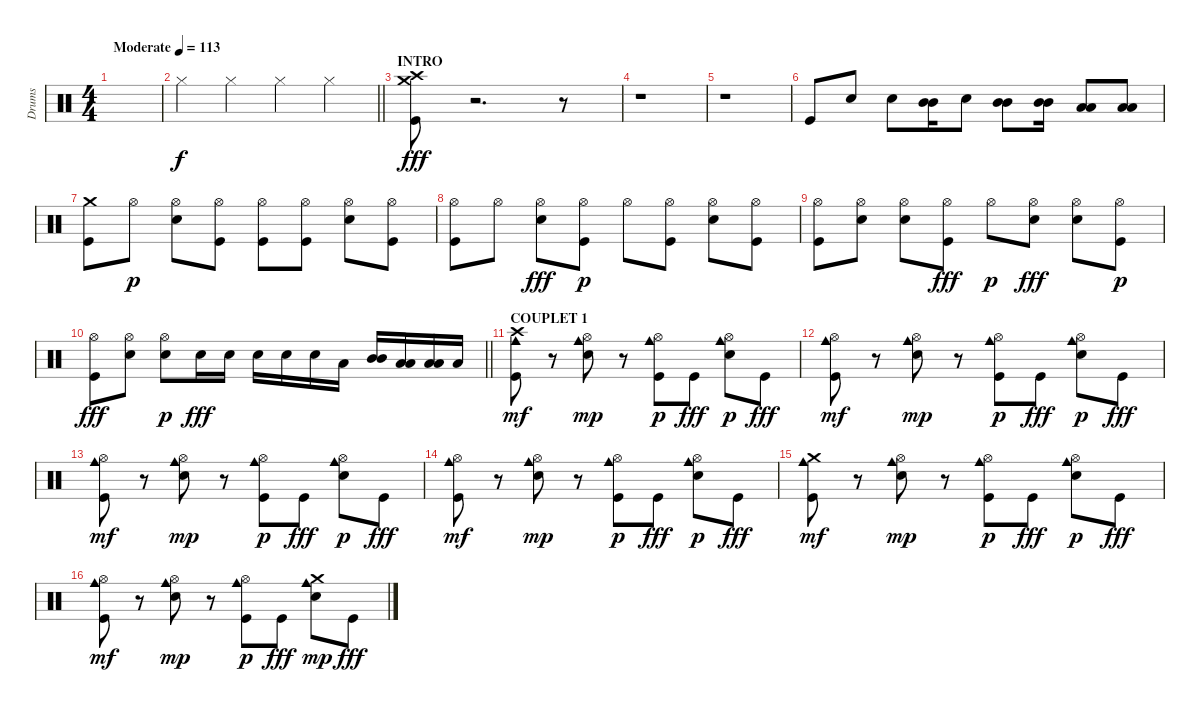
\track ("Drums" "Drums") {instrument percussion}
\staff {score}
\articulation defaults
\ts (4 4)
\tempo (113 "Moderate")
\clef neutral
\ks c
|
\barLineRight lightlight "Hi-Hat (closed)".4 "Hi-Hat (closed)".4 "Hi-Hat (closed)".4 "Hi-Hat (closed)".4
|
\section ("" "INTRO")
("Crash high (hit)" "Crash medium (hit)" "Kick (hit)").8{dy fff} r.2{d} r.8 |
r.1 |
r.1 |
"Kick (hit)".8 "Electric Snare (hit)".8 "Electric Snare (hit)".8 ("Mid Tom (hit)" "Mid Tom (hit)").16 "Electric Snare (hit)".8 ("Mid Tom (hit)" "Mid Tom (hit)").8 ("Mid Tom (hit)" "Mid Tom (hit)").16 ("Low Tom (hit)" "Low Tom (hit)").8 ("Low Floor Tom (hit)" "Low Floor Tom (hit)").8 |
("Crash medium (hit)" "Kick (hit)").8 "Hi-Hat (open)".8{dy p} ("Electric Snare (hit)" "Hi-Hat (open)").8 ("Kick (hit)" "Hi-Hat (open)").8 ("Kick (hit)" "Hi-Hat (open)").8 ("Kick (hit)" "Hi-Hat (open)").8 ("Electric Snare (hit)" "Hi-Hat (open)").8 ("Kick (hit)" "Hi-Hat (open)").8 |
("Kick (hit)" "Hi-Hat (open)").8 "Hi-Hat (open)".8 ("Hi-Hat (open)" "Electric Snare (hit)").8{dy fff} ("Kick (hit)" "Hi-Hat (open)").8{dy p} "Hi-Hat (open)".8 ("Kick (hit)" "Hi-Hat (open)").8 ("Electric Snare (hit)" "Hi-Hat (open)").8 ("Kick (hit)" "Hi-Hat (open)").8 |
("Kick (hit)" "Hi-Hat (open)").8 ("Electric Snare (hit)" "Hi-Hat (open)").8 ("Electric Snare (hit)" "Hi-Hat (open)").8 ("Hi-Hat (open)" "Kick (hit)").8{dy fff} "Hi-Hat (open)".8{dy p} ("Hi-Hat (open)" "Electric Snare (hit)").8{dy fff} ("Hi-Hat (open)" "Electric Snare (hit)").8 ("Kick (hit)" "Hi-Hat (open)").8{dy p} |
\barLineRight lightlight
("Hi-Hat (open)" "Kick (hit)").8{dy fff} ("Hi-Hat (open)" "Electric Snare (hit)").8 ("Electric Snare (hit)" "Hi-Hat (open)").8{dy p} "Electric Snare (hit)".16{dy fff} "Electric Snare (hit)".16 "Electric Snare (hit)".16 "Electric Snare (hit)".16 "Electric Snare (hit)".16 "Low Floor Tom (hit)".16 ("Mid Tom (hit)" "Mid Tom (hit)").16 ("Low Tom (hit)" "Low Tom (hit)").16 ("Low Floor Tom (hit)" "Low Floor Tom (hit)").16 "Low Floor Tom (hit)".16 |
\section ("" "COUPLET 1")
("Crash high (hit)" "Kick (hit)" "Cowbell medium (hit)").8{dy mf} r.8 ("Electric Snare (hit)" "Hi-Hat (open)" "Cowbell medium (hit)").8{dy mp} r.8 ("Cowbell medium (hit)" "Kick (hit)" "Hi-Hat (open)").8{dy p} "Kick (hit)".8{dy fff} ("Electric Snare (hit)" "Cowbell medium (hit)" "Hi-Hat (open)").8{dy p} "Kick (hit)".8{dy fff} |
("Hi-Hat (open)" "Kick (hit)" "Cowbell medium (hit)").8{dy mf} r.8 ("Electric Snare (hit)" "Hi-Hat (open)" "Cowbell medium (hit)").8{dy mp} r.8 ("Cowbell medium (hit)" "Kick (hit)" "Hi-Hat (open)").8{dy p} "Kick (hit)".8{dy fff} ("Electric Snare (hit)" "Cowbell medium (hit)" "Hi-Hat (open)").8{dy p} "Kick (hit)".8{dy fff} |
("Hi-Hat (open)" "Kick (hit)" "Cowbell medium (hit)").8{dy mf} r.8 ("Electric Snare (hit)" "Hi-Hat (open)" "Cowbell medium (hit)").8{dy mp} r.8 ("Cowbell medium (hit)" "Kick (hit)" "Hi-Hat (open)").8{dy p} "Kick (hit)".8{dy fff} ("Electric Snare (hit)" "Cowbell medium (hit)" "Hi-Hat (open)").8{dy p} "Kick (hit)".8{dy fff} |
("Hi-Hat (open)" "Kick (hit)" "Cowbell medium (hit)").8{dy mf} r.8 ("Electric Snare (hit)" "Hi-Hat (open)" "Cowbell medium (hit)").8{dy mp} r.8 ("Cowbell medium (hit)" "Kick (hit)" "Hi-Hat (open)").8{dy p} "Kick (hit)".8{dy fff} ("Electric Snare (hit)" "Cowbell medium (hit)" "Hi-Hat (open)").8{dy p} "Kick (hit)".8{dy fff} |
("Crash medium (hit)" "Kick (hit)" "Cowbell medium (hit)").8{dy mf} r.8 ("Electric Snare (hit)" "Hi-Hat (open)" "Cowbell medium (hit)").8{dy mp} r.8 ("Cowbell medium (hit)" "Kick (hit)" "Hi-Hat (open)").8{dy p} "Kick (hit)".8{dy fff} ("Electric Snare (hit)" "Cowbell medium (hit)" "Hi-Hat (open)").8{dy p} "Kick (hit)".8{dy fff} |
("Hi-Hat (open)" "Kick (hit)" "Cowbell medium (hit)").8{dy mf} r.8 ("Electric Snare (hit)" "Hi-Hat (open)" "Cowbell medium (hit)").8{dy mp} r.8 ("Cowbell medium (hit)" "Kick (hit)" "Hi-Hat (open)").8{dy p} "Kick (hit)".8{dy fff} ("Electric Snare (hit)" "Cowbell medium (hit)" "Crash medium (hit)").8{dy mp} "Kick (hit)".8{dy fff}
